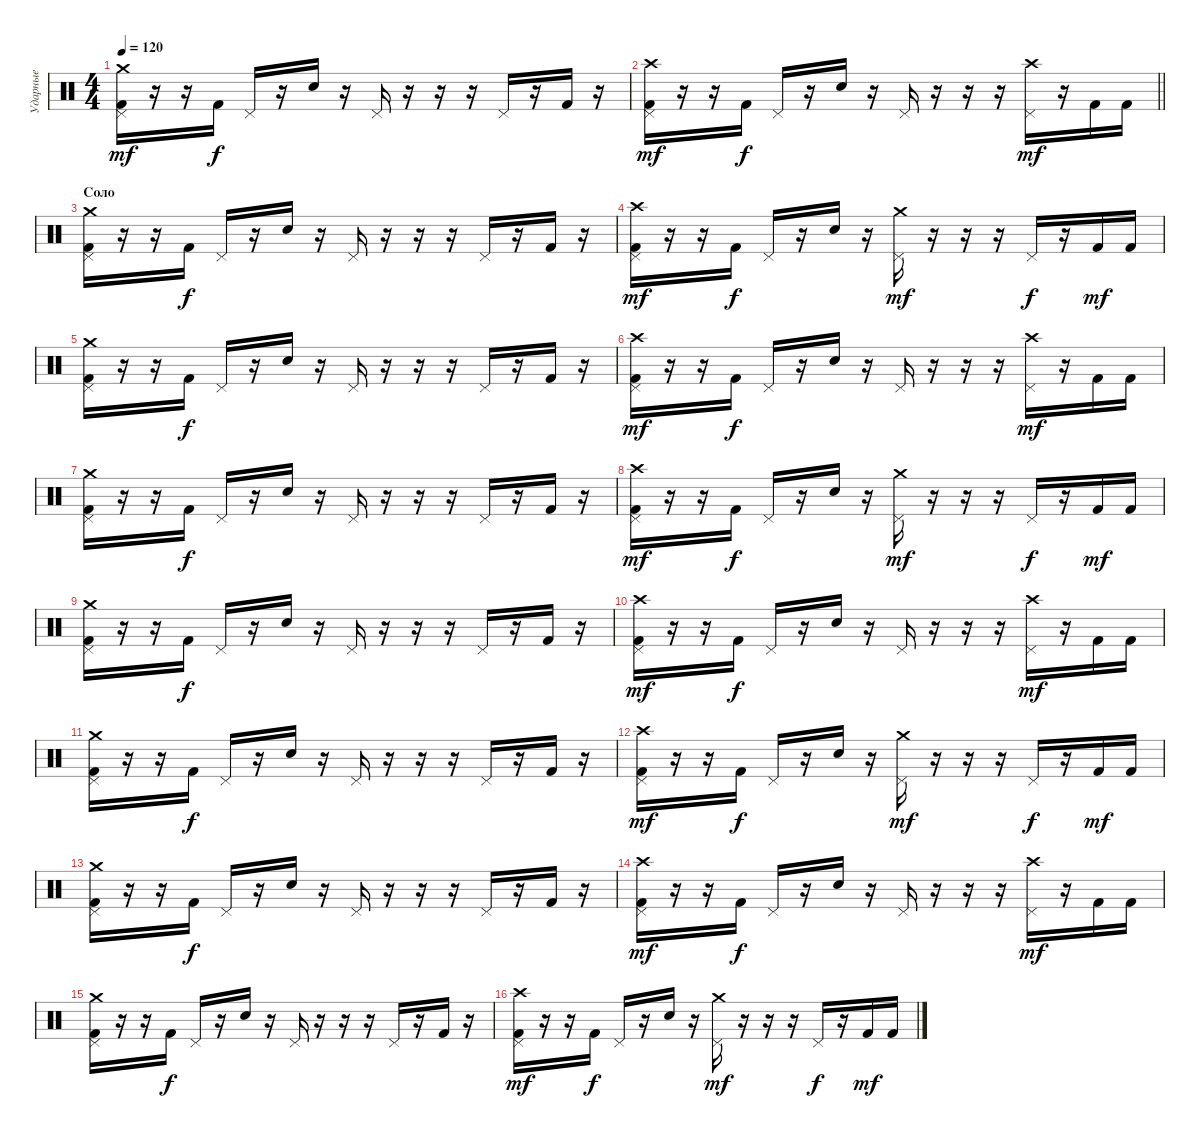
\track ("Ударные" "Ударные") {instrument percussion}
\staff {score}
\articulation defaults
\ts (4 4)
\tempo 120
\clef neutral
\ks c
("Kick (hit) 2" "Pedal Hi-Hat (hit)" "Crash medium (hit)").16{dy mf} r.16 r.16 "Kick (hit) 2".16{dy f} "Pedal Hi-Hat (hit)".16 r.16 "Snare (hit) 2".16 r.16 "Pedal Hi-Hat (hit)".16 r.16 r.16 r.16 "Pedal Hi-Hat (hit)".16 r.16 "Kick (hit) 2".16 r.16 |
\barLineRight lightlight
("Kick (hit) 2" "Pedal Hi-Hat (hit)" "Crash high (hit)").16{dy mf} r.16 r.16 "Kick (hit) 2".16{dy f} "Pedal Hi-Hat (hit)".16 r.16 "Snare (hit) 2".16 r.16 "Pedal Hi-Hat (hit)".16 r.16 r.16 r.16 ("Pedal Hi-Hat (hit)" "Crash high (hit)").16{dy mf} r.16 "Kick (hit) 2".16 "Kick (hit) 2".16 |
\section ("" "Соло")
("Kick (hit) 2" "Pedal Hi-Hat (hit)" "Crash medium (hit)").16 r.16 r.16 "Kick (hit) 2".16{dy f} "Pedal Hi-Hat (hit)".16 r.16 "Snare (hit) 2".16 r.16 "Pedal Hi-Hat (hit)".16 r.16 r.16 r.16 "Pedal Hi-Hat (hit)".16 r.16 "Kick (hit) 2".16 r.16 |
("Kick (hit) 2" "Pedal Hi-Hat (hit)" "Crash high (hit)").16{dy mf} r.16 r.16 "Kick (hit) 2".16{dy f} "Pedal Hi-Hat (hit)".16 r.16 "Snare (hit) 2".16 r.16 ("Pedal Hi-Hat (hit)" "Crash medium (hit)").16{dy mf} r.16 r.16 r.16 "Pedal Hi-Hat (hit)".16{dy f} r.16 "Kick (hit) 2".16{dy mf} "Kick (hit) 2".16 |
("Kick (hit) 2" "Pedal Hi-Hat (hit)" "Crash medium (hit)").16 r.16 r.16 "Kick (hit) 2".16{dy f} "Pedal Hi-Hat (hit)".16 r.16 "Snare (hit) 2".16 r.16 "Pedal Hi-Hat (hit)".16 r.16 r.16 r.16 "Pedal Hi-Hat (hit)".16 r.16 "Kick (hit) 2".16 r.16 |
("Kick (hit) 2" "Pedal Hi-Hat (hit)" "Crash high (hit)").16{dy mf} r.16 r.16 "Kick (hit) 2".16{dy f} "Pedal Hi-Hat (hit)".16 r.16 "Snare (hit) 2".16 r.16 "Pedal Hi-Hat (hit)".16 r.16 r.16 r.16 ("Pedal Hi-Hat (hit)" "Crash high (hit)").16{dy mf} r.16 "Kick (hit) 2".16 "Kick (hit) 2".16 |
("Kick (hit) 2" "Pedal Hi-Hat (hit)" "Crash medium (hit)").16 r.16 r.16 "Kick (hit) 2".16{dy f} "Pedal Hi-Hat (hit)".16 r.16 "Snare (hit) 2".16 r.16 "Pedal Hi-Hat (hit)".16 r.16 r.16 r.16 "Pedal Hi-Hat (hit)".16 r.16 "Kick (hit) 2".16 r.16 |
("Kick (hit) 2" "Pedal Hi-Hat (hit)" "Crash high (hit)").16{dy mf} r.16 r.16 "Kick (hit) 2".16{dy f} "Pedal Hi-Hat (hit)".16 r.16 "Snare (hit) 2".16 r.16 ("Pedal Hi-Hat (hit)" "Crash medium (hit)").16{dy mf} r.16 r.16 r.16 "Pedal Hi-Hat (hit)".16{dy f} r.16 "Kick (hit) 2".16{dy mf} "Kick (hit) 2".16 |
("Kick (hit) 2" "Pedal Hi-Hat (hit)" "Crash medium (hit)").16 r.16 r.16 "Kick (hit) 2".16{dy f} "Pedal Hi-Hat (hit)".16 r.16 "Snare (hit) 2".16 r.16 "Pedal Hi-Hat (hit)".16 r.16 r.16 r.16 "Pedal Hi-Hat (hit)".16 r.16 "Kick (hit) 2".16 r.16 |
("Kick (hit) 2" "Pedal Hi-Hat (hit)" "Crash high (hit)").16{dy mf} r.16 r.16 "Kick (hit) 2".16{dy f} "Pedal Hi-Hat (hit)".16 r.16 "Snare (hit) 2".16 r.16 "Pedal Hi-Hat (hit)".16 r.16 r.16 r.16 ("Pedal Hi-Hat (hit)" "Crash high (hit)").16{dy mf} r.16 "Kick (hit) 2".16 "Kick (hit) 2".16 |
("Kick (hit) 2" "Pedal Hi-Hat (hit)" "Crash medium (hit)").16 r.16 r.16 "Kick (hit) 2".16{dy f} "Pedal Hi-Hat (hit)".16 r.16 "Snare (hit) 2".16 r.16 "Pedal Hi-Hat (hit)".16 r.16 r.16 r.16 "Pedal Hi-Hat (hit)".16 r.16 "Kick (hit) 2".16 r.16 |
("Kick (hit) 2" "Pedal Hi-Hat (hit)" "Crash high (hit)").16{dy mf} r.16 r.16 "Kick (hit) 2".16{dy f} "Pedal Hi-Hat (hit)".16 r.16 "Snare (hit) 2".16 r.16 ("Pedal Hi-Hat (hit)" "Crash medium (hit)").16{dy mf} r.16 r.16 r.16 "Pedal Hi-Hat (hit)".16{dy f} r.16 "Kick (hit) 2".16{dy mf} "Kick (hit) 2".16 |
("Kick (hit) 2" "Pedal Hi-Hat (hit)" "Crash medium (hit)").16 r.16 r.16 "Kick (hit) 2".16{dy f} "Pedal Hi-Hat (hit)".16 r.16 "Snare (hit) 2".16 r.16 "Pedal Hi-Hat (hit)".16 r.16 r.16 r.16 "Pedal Hi-Hat (hit)".16 r.16 "Kick (hit) 2".16 r.16 |
("Kick (hit) 2" "Pedal Hi-Hat (hit)" "Crash high (hit)").16{dy mf} r.16 r.16 "Kick (hit) 2".16{dy f} "Pedal Hi-Hat (hit)".16 r.16 "Snare (hit) 2".16 r.16 "Pedal Hi-Hat (hit)".16 r.16 r.16 r.16 ("Pedal Hi-Hat (hit)" "Crash high (hit)").16{dy mf} r.16 "Kick (hit) 2".16 "Kick (hit) 2".16 |
("Kick (hit) 2" "Pedal Hi-Hat (hit)" "Crash medium (hit)").16 r.16 r.16 "Kick (hit) 2".16{dy f} "Pedal Hi-Hat (hit)".16 r.16 "Snare (hit) 2".16 r.16 "Pedal Hi-Hat (hit)".16 r.16 r.16 r.16 "Pedal Hi-Hat (hit)".16 r.16 "Kick (hit) 2".16 r.16 |
("Kick (hit) 2" "Pedal Hi-Hat (hit)" "Crash high (hit)").16{dy mf} r.16 r.16 "Kick (hit) 2".16{dy f} "Pedal Hi-Hat (hit)".16 r.16 "Snare (hit) 2".16 r.16 ("Pedal Hi-Hat (hit)" "Crash medium (hit)").16{dy mf} r.16 r.16 r.16 "Pedal Hi-Hat (hit)".16{dy f} r.16 "Kick (hit) 2".16{dy mf} "Kick (hit) 2".16
